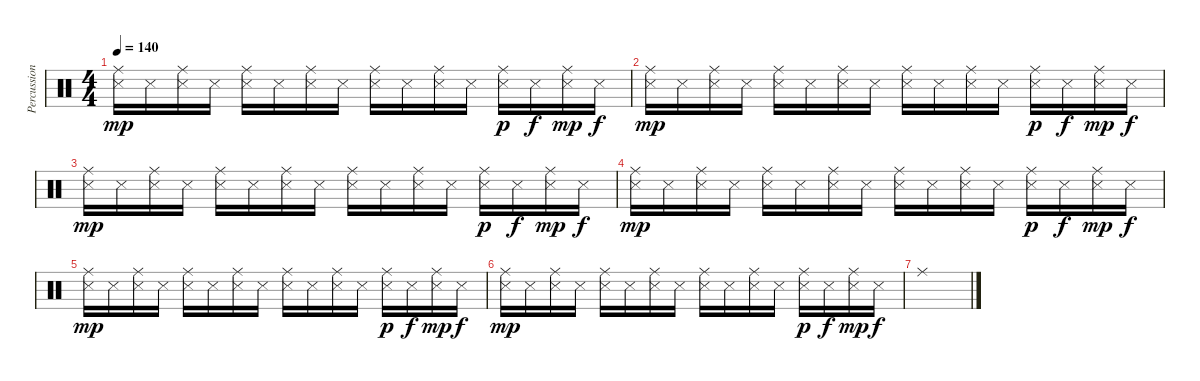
\track ("Percussion" "Percussion") {instrument percussion}
\staff {score}
\articulation defaults
\ts (4 4)
\tempo 140
\clef neutral
\ks c
("Ride (middle)" "Snare (side stick) 3").16{dy mp} "Snare (side stick) 3".16 ("Ride (middle)" "Snare (side stick) 3").16 "Snare (side stick) 3".16 ("Ride (middle)" "Snare (side stick) 3").16 "Snare (side stick) 3".16 ("Ride (middle)" "Snare (side stick) 3").16 "Snare (side stick) 3".16 ("Ride (middle)" "Snare (side stick) 3").16 "Snare (side stick) 3".16 ("Ride (middle)" "Snare (side stick) 3").16 "Snare (side stick) 3".16 ("Ride (middle)" "Snare (side stick) 3").16{dy p} "Snare (side stick) 3".16{dy f} ("Ride (middle)" "Snare (side stick) 3").16{dy mp} "Snare (side stick) 3".16{dy f} |
("Ride (middle)" "Snare (side stick) 3").16{dy mp} "Snare (side stick) 3".16 ("Ride (middle)" "Snare (side stick) 3").16 "Snare (side stick) 3".16 ("Ride (middle)" "Snare (side stick) 3").16 "Snare (side stick) 3".16 ("Ride (middle)" "Snare (side stick) 3").16 "Snare (side stick) 3".16 ("Ride (middle)" "Snare (side stick) 3").16 "Snare (side stick) 3".16 ("Ride (middle)" "Snare (side stick) 3").16 "Snare (side stick) 3".16 ("Ride (middle)" "Snare (side stick) 3").16{dy p} "Snare (side stick) 3".16{dy f} ("Ride (middle)" "Snare (side stick) 3").16{dy mp} "Snare (side stick) 3".16{dy f} |
("Ride (middle)" "Snare (side stick) 3").16{dy mp} "Snare (side stick) 3".16 ("Ride (middle)" "Snare (side stick) 3").16 "Snare (side stick) 3".16 ("Ride (middle)" "Snare (side stick) 3").16 "Snare (side stick) 3".16 ("Ride (middle)" "Snare (side stick) 3").16 "Snare (side stick) 3".16 ("Ride (middle)" "Snare (side stick) 3").16 "Snare (side stick) 3".16 ("Ride (middle)" "Snare (side stick) 3").16 "Snare (side stick) 3".16 ("Ride (middle)" "Snare (side stick) 3").16{dy p} "Snare (side stick) 3".16{dy f} ("Ride (middle)" "Snare (side stick) 3").16{dy mp} "Snare (side stick) 3".16{dy f} |
("Ride (middle)" "Snare (side stick) 3").16{dy mp} "Snare (side stick) 3".16 ("Ride (middle)" "Snare (side stick) 3").16 "Snare (side stick) 3".16 ("Ride (middle)" "Snare (side stick) 3").16 "Snare (side stick) 3".16 ("Ride (middle)" "Snare (side stick) 3").16 "Snare (side stick) 3".16 ("Ride (middle)" "Snare (side stick) 3").16 "Snare (side stick) 3".16 ("Ride (middle)" "Snare (side stick) 3").16 "Snare (side stick) 3".16 ("Ride (middle)" "Snare (side stick) 3").16{dy p} "Snare (side stick) 3".16{dy f} ("Ride (middle)" "Snare (side stick) 3").16{dy mp} "Snare (side stick) 3".16{dy f} |
("Ride (middle)" "Snare (side stick) 3").16{dy mp} "Snare (side stick) 3".16 ("Ride (middle)" "Snare (side stick) 3").16 "Snare (side stick) 3".16 ("Ride (middle)" "Snare (side stick) 3").16 "Snare (side stick) 3".16 ("Ride (middle)" "Snare (side stick) 3").16 "Snare (side stick) 3".16 ("Ride (middle)" "Snare (side stick) 3").16 "Snare (side stick) 3".16 ("Ride (middle)" "Snare (side stick) 3").16 "Snare (side stick) 3".16 ("Ride (middle)" "Snare (side stick) 3").16{dy p} "Snare (side stick) 3".16{dy f} ("Ride (middle)" "Snare (side stick) 3").16{dy mp} "Snare (side stick) 3".16{dy f} |
("Ride (middle)" "Snare (side stick) 3").16{dy mp} "Snare (side stick) 3".16 ("Ride (middle)" "Snare (side stick) 3").16 "Snare (side stick) 3".16 ("Ride (middle)" "Snare (side stick) 3").16 "Snare (side stick) 3".16 ("Ride (middle)" "Snare (side stick) 3").16 "Snare (side stick) 3".16 ("Ride (middle)" "Snare (side stick) 3").16 "Snare (side stick) 3".16 ("Ride (middle)" "Snare (side stick) 3").16 "Snare (side stick) 3".16 ("Ride (middle)" "Snare (side stick) 3").16{dy p} "Snare (side stick) 3".16{dy f} ("Ride (middle)" "Snare (side stick) 3").16{dy mp} "Snare (side stick) 3".16{dy f} |
"Ride (middle)".1
